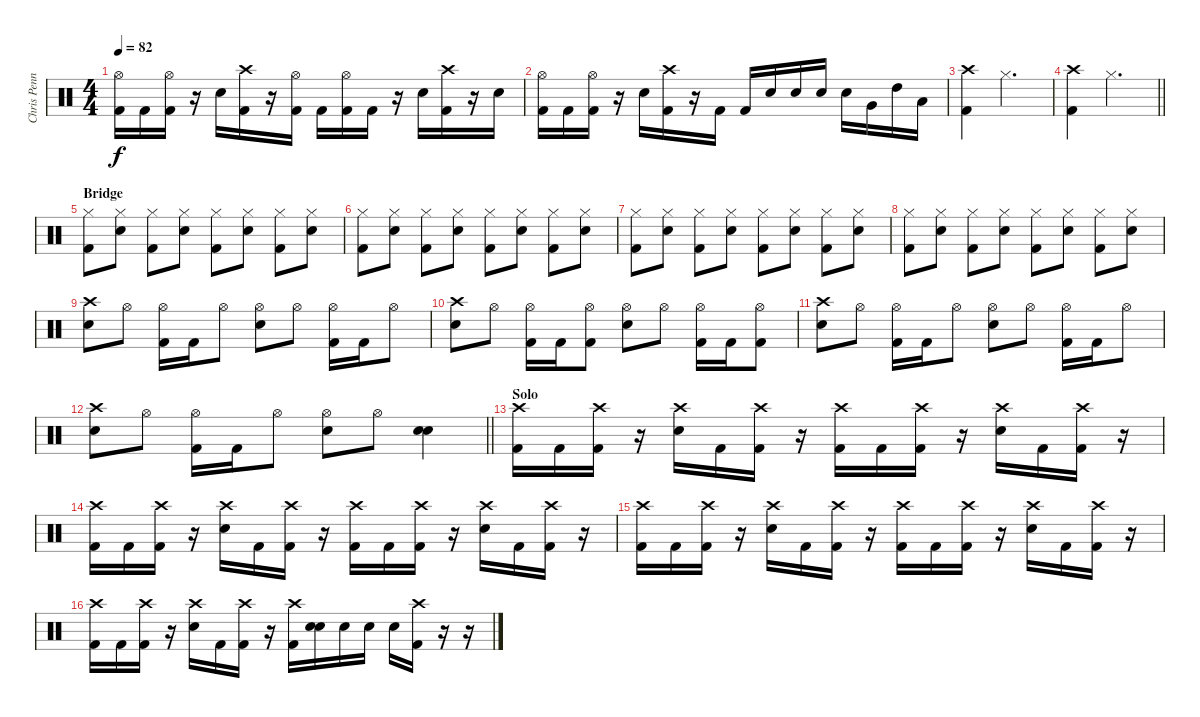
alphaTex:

\track ("Chris Pennie" "Chris Penn") {instrument percussion}
\staff {score}
\articulation defaults
\ts (4 4)
\tempo 82
\clef neutral
\ks c
("Hi-Hat (open)" "Kick (hit) 2").16{dy f} "Kick (hit) 2".16 ("Hi-Hat (open)" "Kick (hit) 2").16 r.16 "Electric Snare (hit)".16 ("Crash high (hit)" "Kick (hit) 2").16 r.16 ("Hi-Hat (open)" "Kick (hit) 2").16 "Kick (hit) 2".16 ("Hi-Hat (open)" "Kick (hit) 2").16 "Kick (hit) 2".16 r.16 "Electric Snare (hit)".16 ("Crash high (hit)" "Kick (hit) 2").16 r.16 "Electric Snare (hit)".16 |
("Hi-Hat (open)" "Kick (hit) 2").16 "Kick (hit) 2".16 ("Hi-Hat (open)" "Kick (hit) 2").16 r.16 "Electric Snare (hit)".16 ("Crash high (hit)" "Kick (hit) 2").16 r.16 "Kick (hit) 2".16 "Kick (hit) 2".16 "Electric Snare (hit)".16 "Electric Snare (hit)".16 "Electric Snare (hit)".16 "Electric Snare (hit)".16 "Very Low Tom (hit)".16 "High Tom (hit)".16 "Low Floor Tom (hit)".16 |
("Crash high (hit)" "Kick (hit) 2").4 "Hi-Hat (closed)".2{d} |
\barLineRight lightlight
("Crash high (hit)" "Kick (hit) 2").4 "Hi-Hat (closed)".2{d} |
\section ("" "Bridge")
("Hi-Hat (closed)" "Kick (hit) 2").8 ("Hi-Hat (closed)" "Electric Snare (hit)").8 ("Hi-Hat (closed)" "Kick (hit) 2").8 ("Hi-Hat (closed)" "Electric Snare (hit)").8 ("Hi-Hat (closed)" "Kick (hit) 2").8 ("Hi-Hat (closed)" "Electric Snare (hit)").8 ("Hi-Hat (closed)" "Kick (hit) 2").8 ("Hi-Hat (closed)" "Electric Snare (hit)").8 |
("Hi-Hat (closed)" "Kick (hit) 2").8 ("Hi-Hat (closed)" "Electric Snare (hit)").8 ("Hi-Hat (closed)" "Kick (hit) 2").8 ("Hi-Hat (closed)" "Electric Snare (hit)").8 ("Hi-Hat (closed)" "Kick (hit) 2").8 ("Hi-Hat (closed)" "Electric Snare (hit)").8 ("Hi-Hat (closed)" "Kick (hit) 2").8 ("Hi-Hat (closed)" "Electric Snare (hit)").8 |
("Hi-Hat (closed)" "Kick (hit) 2").8 ("Hi-Hat (closed)" "Electric Snare (hit)").8 ("Hi-Hat (closed)" "Kick (hit) 2").8 ("Hi-Hat (closed)" "Electric Snare (hit)").8 ("Hi-Hat (closed)" "Kick (hit) 2").8 ("Hi-Hat (closed)" "Electric Snare (hit)").8 ("Hi-Hat (closed)" "Kick (hit) 2").8 ("Hi-Hat (closed)" "Electric Snare (hit)").8 |
("Hi-Hat (closed)" "Kick (hit) 2").8 ("Hi-Hat (closed)" "Electric Snare (hit)").8 ("Hi-Hat (closed)" "Kick (hit) 2").8 ("Hi-Hat (closed)" "Electric Snare (hit)").8 ("Hi-Hat (closed)" "Kick (hit) 2").8 ("Hi-Hat (closed)" "Electric Snare (hit)").8 ("Hi-Hat (closed)" "Kick (hit) 2").8 ("Hi-Hat (closed)" "Electric Snare (hit)").8 |
("Crash high (hit)" "Electric Snare (hit)").8 "Hi-Hat (open)".8 ("Hi-Hat (open)" "Kick (hit) 2").16 "Kick (hit) 2".16 "Hi-Hat (open)".8 ("Hi-Hat (open)" "Electric Snare (hit)").8 "Hi-Hat (open)".8 ("Hi-Hat (open)" "Kick (hit) 2").16 "Kick (hit) 2".16 "Hi-Hat (open)".8 |
("Crash high (hit)" "Electric Snare (hit)").8 "Hi-Hat (open)".8 ("Hi-Hat (open)" "Kick (hit) 2").16 "Kick (hit) 2".16 ("Hi-Hat (open)" "Kick (hit) 2").8 ("Hi-Hat (open)" "Electric Snare (hit)").8 "Hi-Hat (open)".8 ("Hi-Hat (open)" "Kick (hit) 2").16 "Kick (hit) 2".16 ("Hi-Hat (open)" "Kick (hit) 2").8 |
("Crash high (hit)" "Electric Snare (hit)").8 "Hi-Hat (open)".8 ("Hi-Hat (open)" "Kick (hit) 2").16 "Kick (hit) 2".16 "Hi-Hat (open)".8 ("Hi-Hat (open)" "Electric Snare (hit)").8 "Hi-Hat (open)".8 ("Hi-Hat (open)" "Kick (hit) 2").16 "Kick (hit) 2".16 "Hi-Hat (open)".8 |
\barLineRight lightlight
("Crash high (hit)" "Electric Snare (hit)").8 "Hi-Hat (open)".8 ("Hi-Hat (open)" "Kick (hit) 2").16 "Kick (hit) 2".16 "Hi-Hat (open)".8 ("Hi-Hat (open)" "Electric Snare (hit)").8 "Hi-Hat (open)".8 ("Electric Snare (hit)" "Electric Snare (hit)").4 |
\section ("" "Solo")
("Crash high (hit)" "Kick (hit) 2").16 "Kick (hit) 2".16 ("Crash high (hit)" "Kick (hit) 2").16 r.16 ("Crash high (hit)" "Electric Snare (hit)").16 "Kick (hit) 2".16 ("Crash high (hit)" "Kick (hit) 2").16 r.16 ("Crash high (hit)" "Kick (hit) 2").16 "Kick (hit) 2".16 ("Crash high (hit)" "Kick (hit) 2").16 r.16 ("Crash high (hit)" "Electric Snare (hit)").16 "Kick (hit) 2".16 ("Crash high (hit)" "Kick (hit) 2").16 r.16 |
("Crash high (hit)" "Kick (hit) 2").16 "Kick (hit) 2".16 ("Crash high (hit)" "Kick (hit) 2").16 r.16 ("Crash high (hit)" "Electric Snare (hit)").16 "Kick (hit) 2".16 ("Crash high (hit)" "Kick (hit) 2").16 r.16 ("Crash high (hit)" "Kick (hit) 2").16 "Kick (hit) 2".16 ("Crash high (hit)" "Kick (hit) 2").16 r.16 ("Crash high (hit)" "Electric Snare (hit)").16 "Kick (hit) 2".16 ("Crash high (hit)" "Kick (hit) 2").16 r.16 |
("Crash high (hit)" "Kick (hit) 2").16 "Kick (hit) 2".16 ("Crash high (hit)" "Kick (hit) 2").16 r.16 ("Crash high (hit)" "Electric Snare (hit)").16 "Kick (hit) 2".16 ("Crash high (hit)" "Kick (hit) 2").16 r.16 ("Crash high (hit)" "Kick (hit) 2").16 "Kick (hit) 2".16 ("Crash high (hit)" "Kick (hit) 2").16 r.16 ("Crash high (hit)" "Electric Snare (hit)").16 "Kick (hit) 2".16 ("Crash high (hit)" "Kick (hit) 2").16 r.16 |
("Crash high (hit)" "Kick (hit) 2").16 "Kick (hit) 2".16 ("Crash high (hit)" "Kick (hit) 2").16 r.16 ("Crash high (hit)" "Electric Snare (hit)").16 "Kick (hit) 2".16 ("Crash high (hit)" "Kick (hit) 2").16 r.16 ("Crash high (hit)" "Kick (hit) 2").16 ("Electric Snare (hit)" "Electric Snare (hit)").16 "Electric Snare (hit)".16 "Electric Snare (hit)".16 "Electric Snare (hit)".16 ("Crash high (hit)" "Kick (hit) 2").16 r.16 r.16
